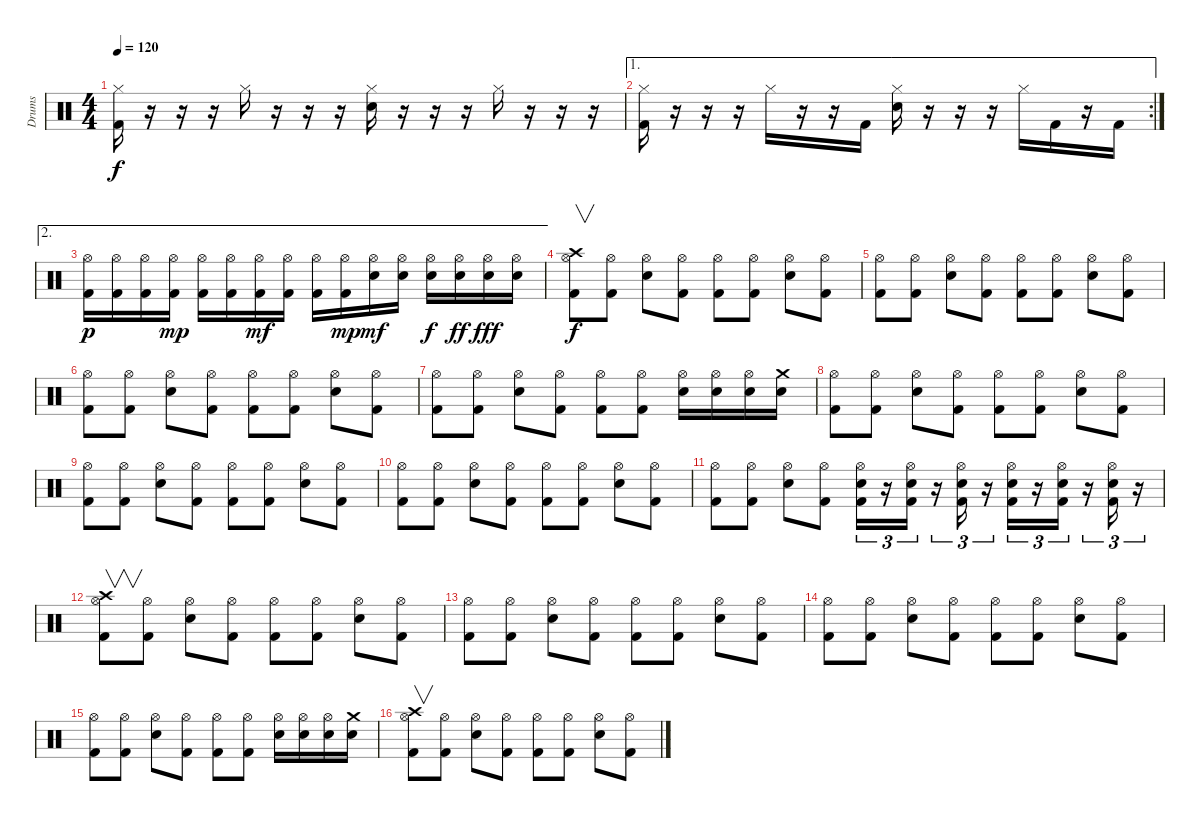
\track ("Drums" "Drums") {instrument percussion}
\staff {score}
\articulation defaults
\ts (4 4)
\tempo 120
\clef neutral
\ks c
("Hi-Hat (closed)" "Kick (hit) 2").16{dy f} r.16 r.16 r.16 "Hi-Hat (closed)".16 r.16 r.16 r.16 ("Hi-Hat (closed)" "Electric Snare (hit)").16 r.16 r.16 r.16 "Hi-Hat (closed)".16 r.16 r.16 r.16 |
\ae 1
\rc 2
("Hi-Hat (closed)" "Kick (hit) 2").16 r.16 r.16 r.16 "Hi-Hat (closed)".16 r.16 r.16 "Kick (hit) 2".16 ("Hi-Hat (closed)" "Electric Snare (hit)").16 r.16 r.16 r.16 "Hi-Hat (closed)".16 "Kick (hit) 2".16 r.16 "Kick (hit) 2".16 |
\ae 2
("Hi-Hat (open)" "Kick (hit) 2").16{dy p} ("Hi-Hat (open)" "Kick (hit) 2").16 ("Hi-Hat (open)" "Kick (hit) 2").16 ("Hi-Hat (open)" "Kick (hit) 2").16{dy mp} ("Hi-Hat (open)" "Kick (hit) 2").16 ("Hi-Hat (open)" "Kick (hit) 2").16 ("Hi-Hat (open)" "Kick (hit) 2").16{dy mf} ("Hi-Hat (open)" "Kick (hit) 2").16 ("Hi-Hat (open)" "Kick (hit) 2").16 ("Hi-Hat (open)" "Kick (hit) 2").16{dy mp} ("Hi-Hat (open)" "Electric Snare (hit)").16{dy mf} ("Hi-Hat (open)" "Electric Snare (hit)").16 ("Hi-Hat (open)" "Electric Snare (hit)").16{dy f} ("Hi-Hat (open)" "Electric Snare (hit)").16{dy ff} ("Hi-Hat (open)" "Electric Snare (hit)").16{dy fff} ("Hi-Hat (open)" "Electric Snare (hit)").16 |
("Crash high (hit)" "Hi-Hat (open)" "Kick (hit) 2").8{v dy f} ("Hi-Hat (open)" "Kick (hit) 2").8 ("Hi-Hat (open)" "Electric Snare (hit)").8 ("Hi-Hat (open)" "Kick (hit) 2").8 ("Hi-Hat (open)" "Kick (hit) 2").8 ("Hi-Hat (open)" "Kick (hit) 2").8 ("Hi-Hat (open)" "Electric Snare (hit)").8 ("Hi-Hat (open)" "Kick (hit) 2").8 |
("Hi-Hat (open)" "Kick (hit) 2").8 ("Hi-Hat (open)" "Kick (hit) 2").8 ("Hi-Hat (open)" "Electric Snare (hit)").8 ("Hi-Hat (open)" "Kick (hit) 2").8 ("Hi-Hat (open)" "Kick (hit) 2").8 ("Hi-Hat (open)" "Kick (hit) 2").8 ("Hi-Hat (open)" "Electric Snare (hit)").8 ("Hi-Hat (open)" "Kick (hit) 2").8 |
("Hi-Hat (open)" "Kick (hit) 2").8 ("Hi-Hat (open)" "Kick (hit) 2").8 ("Hi-Hat (open)" "Electric Snare (hit)").8 ("Hi-Hat (open)" "Kick (hit) 2").8 ("Hi-Hat (open)" "Kick (hit) 2").8 ("Hi-Hat (open)" "Kick (hit) 2").8 ("Hi-Hat (open)" "Electric Snare (hit)").8 ("Hi-Hat (open)" "Kick (hit) 2").8 |
("Hi-Hat (open)" "Kick (hit) 2").8 ("Hi-Hat (open)" "Kick (hit) 2").8 ("Hi-Hat (open)" "Electric Snare (hit)").8 ("Hi-Hat (open)" "Kick (hit) 2").8 ("Hi-Hat (open)" "Kick (hit) 2").8 ("Hi-Hat (open)" "Kick (hit) 2").8 ("Hi-Hat (open)" "Electric Snare (hit)").16 ("Hi-Hat (open)" "Electric Snare (hit)").16 ("Hi-Hat (open)" "Electric Snare (hit)").16 ("Crash medium (hit)" "Electric Snare (hit)").16 |
("Hi-Hat (open)" "Kick (hit) 2").8 ("Hi-Hat (open)" "Kick (hit) 2").8 ("Hi-Hat (open)" "Electric Snare (hit)").8 ("Hi-Hat (open)" "Kick (hit) 2").8 ("Hi-Hat (open)" "Kick (hit) 2").8 ("Hi-Hat (open)" "Kick (hit) 2").8 ("Hi-Hat (open)" "Electric Snare (hit)").8 ("Hi-Hat (open)" "Kick (hit) 2").8 |
("Hi-Hat (open)" "Kick (hit) 2").8 ("Hi-Hat (open)" "Kick (hit) 2").8 ("Hi-Hat (open)" "Electric Snare (hit)").8 ("Hi-Hat (open)" "Kick (hit) 2").8 ("Hi-Hat (open)" "Kick (hit) 2").8 ("Hi-Hat (open)" "Kick (hit) 2").8 ("Hi-Hat (open)" "Electric Snare (hit)").8 ("Hi-Hat (open)" "Kick (hit) 2").8 |
("Hi-Hat (open)" "Kick (hit) 2").8 ("Hi-Hat (open)" "Kick (hit) 2").8 ("Hi-Hat (open)" "Electric Snare (hit)").8 ("Hi-Hat (open)" "Kick (hit) 2").8 ("Hi-Hat (open)" "Kick (hit) 2").8 ("Hi-Hat (open)" "Kick (hit) 2").8 ("Hi-Hat (open)" "Electric Snare (hit)").8 ("Hi-Hat (open)" "Kick (hit) 2").8 |
("Hi-Hat (open)" "Kick (hit) 2").8 ("Hi-Hat (open)" "Kick (hit) 2").8 ("Hi-Hat (open)" "Electric Snare (hit)").8 ("Hi-Hat (open)" "Kick (hit) 2").8 ("Hi-Hat (open)" "Kick (hit) 2" "Electric Snare (hit)").16{tu (3 2)} r.16{tu (3 2)} ("Hi-Hat (open)" "Kick (hit) 2" "Electric Snare (hit)").16{tu (3 2)} r.16{tu (3 2)} ("Hi-Hat (open)" "Kick (hit) 2" "Electric Snare (hit)").16{tu (3 2)} r.16{tu (3 2)} ("Hi-Hat (open)" "Kick (hit) 2" "Electric Snare (hit)").16{tu (3 2)} r.16{tu (3 2)} ("Hi-Hat (open)" "Kick (hit) 2" "Electric Snare (hit)").16{tu (3 2)} r.16{tu (3 2)} ("Hi-Hat (open)" "Kick (hit) 2" "Electric Snare (hit)").16{tu (3 2)} r.16{tu (3 2)} |
("Crash high (hit)" "Hi-Hat (open)" "Kick (hit) 2").8{v} ("Hi-Hat (open)" "Kick (hit) 2").8 ("Hi-Hat (open)" "Electric Snare (hit)").8 ("Hi-Hat (open)" "Kick (hit) 2").8 ("Hi-Hat (open)" "Kick (hit) 2").8 ("Hi-Hat (open)" "Kick (hit) 2").8 ("Hi-Hat (open)" "Electric Snare (hit)").8 ("Hi-Hat (open)" "Kick (hit) 2").8 |
("Hi-Hat (open)" "Kick (hit) 2").8 ("Hi-Hat (open)" "Kick (hit) 2").8 ("Hi-Hat (open)" "Electric Snare (hit)").8 ("Hi-Hat (open)" "Kick (hit) 2").8 ("Hi-Hat (open)" "Kick (hit) 2").8 ("Hi-Hat (open)" "Kick (hit) 2").8 ("Hi-Hat (open)" "Electric Snare (hit)").8 ("Hi-Hat (open)" "Kick (hit) 2").8 |
("Hi-Hat (open)" "Kick (hit) 2").8 ("Hi-Hat (open)" "Kick (hit) 2").8 ("Hi-Hat (open)" "Electric Snare (hit)").8 ("Hi-Hat (open)" "Kick (hit) 2").8 ("Hi-Hat (open)" "Kick (hit) 2").8 ("Hi-Hat (open)" "Kick (hit) 2").8 ("Hi-Hat (open)" "Electric Snare (hit)").8 ("Hi-Hat (open)" "Kick (hit) 2").8 |
("Hi-Hat (open)" "Kick (hit) 2").8 ("Hi-Hat (open)" "Kick (hit) 2").8 ("Hi-Hat (open)" "Electric Snare (hit)").8 ("Hi-Hat (open)" "Kick (hit) 2").8 ("Hi-Hat (open)" "Kick (hit) 2").8 ("Hi-Hat (open)" "Kick (hit) 2").8 ("Hi-Hat (open)" "Electric Snare (hit)").16 ("Hi-Hat (open)" "Electric Snare (hit)").16 ("Hi-Hat (open)" "Electric Snare (hit)").16 ("Crash medium (hit)" "Electric Snare (hit)").16 |
("Crash high (hit)" "Hi-Hat (open)" "Kick (hit) 2").8{v} ("Hi-Hat (open)" "Kick (hit) 2").8 ("Hi-Hat (open)" "Electric Snare (hit)").8 ("Hi-Hat (open)" "Kick (hit) 2").8 ("Hi-Hat (open)" "Kick (hit) 2").8 ("Hi-Hat (open)" "Kick (hit) 2").8 ("Hi-Hat (open)" "Electric Snare (hit)").8 ("Hi-Hat (open)" "Kick (hit) 2").8
